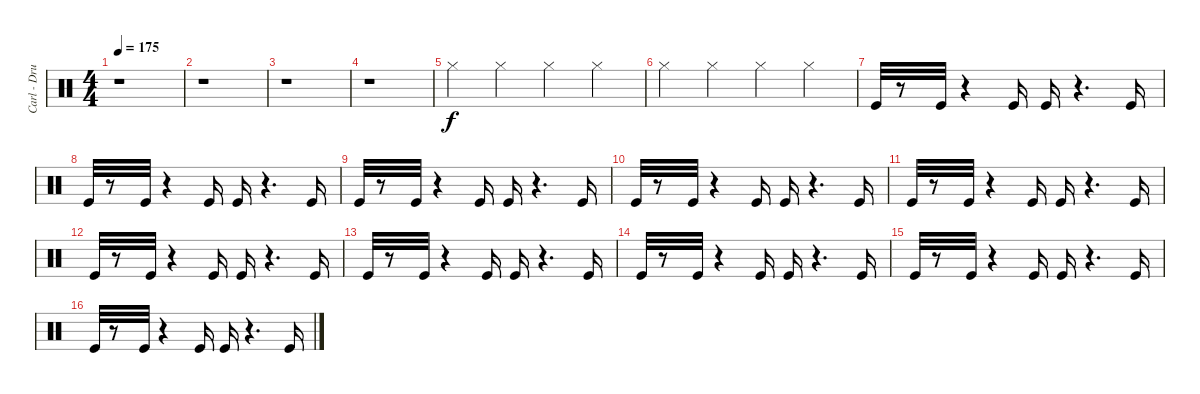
\track ("Carl - Drums I" "Carl - Dru") {instrument percussion}
\staff {score}
\articulation defaults
\ts (4 4)
\tempo 175
\clef neutral
\ks c
r.1{dy f} |
r.1 |
r.1 |
r.1 |
"Hi-Hat (closed)".4 "Hi-Hat (closed)".4 "Hi-Hat (closed)".4 "Hi-Hat (closed)".4 |
"Hi-Hat (closed)".4 "Hi-Hat (closed)".4 "Hi-Hat (closed)".4 "Hi-Hat (closed)".4 |
"Kick (hit)".32{volume 12} r.8 "Kick (hit)".32 r.4 "Kick (hit)".16 "Kick (hit)".16 r.4{d} "Kick (hit)".16 |
"Kick (hit)".32 r.8 "Kick (hit)".32 r.4 "Kick (hit)".16 "Kick (hit)".16 r.4{d} "Kick (hit)".16 |
"Kick (hit)".32 r.8 "Kick (hit)".32 r.4 "Kick (hit)".16 "Kick (hit)".16 r.4{d} "Kick (hit)".16 |
"Kick (hit)".32 r.8 "Kick (hit)".32 r.4 "Kick (hit)".16 "Kick (hit)".16 r.4{d} "Kick (hit)".16 |
"Kick (hit)".32 r.8 "Kick (hit)".32 r.4 "Kick (hit)".16 "Kick (hit)".16 r.4{d} "Kick (hit)".16 |
"Kick (hit)".32 r.8 "Kick (hit)".32 r.4 "Kick (hit)".16 "Kick (hit)".16 r.4{d} "Kick (hit)".16 |
"Kick (hit)".32 r.8 "Kick (hit)".32 r.4 "Kick (hit)".16 "Kick (hit)".16 r.4{d} "Kick (hit)".16 |
"Kick (hit)".32 r.8 "Kick (hit)".32 r.4 "Kick (hit)".16 "Kick (hit)".16 r.4{d} "Kick (hit)".16 |
"Kick (hit)".32 r.8 "Kick (hit)".32 r.4 "Kick (hit)".16 "Kick (hit)".16 r.4{d} "Kick (hit)".16 |
"Kick (hit)".32 r.8 "Kick (hit)".32 r.4 "Kick (hit)".16 "Kick (hit)".16 r.4{d} "Kick (hit)".16
